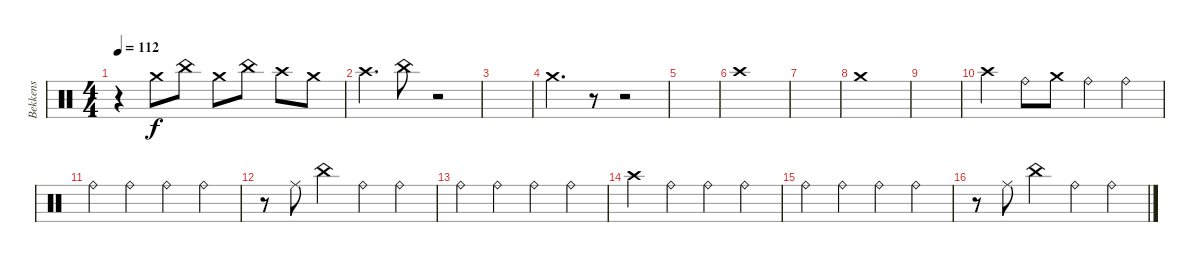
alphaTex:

\track ("Bekkens" "Bekkens") {instrument percussion}
\staff {score}
\articulation defaults
\ts (4 4)
\tempo 112
\clef neutral
\ks c
r.4{dy f} "Crash medium (hit)".8 "China (hit)".8 "Crash medium (hit)".8 "China (hit)".8 "Crash high (hit)".8 "Crash medium (hit)".8 |
"Crash high (hit)".4{d} "China (hit)".8 r.2 |
|
"Crash medium (hit)".4{d} r.8 r.2 |
|
"Crash high (hit)".1 |
|
"Crash medium (hit)".1 |
|
"Crash high (hit)".4 "Ride (bell)".8 "Crash medium (hit)".8 "Ride (bell)"{x}.4 "Ride (bell)"{x}.4 |
"Ride (bell)"{x}.4 "Ride (bell)"{x}.4 "Ride (bell)"{x}.4 "Ride (bell)"{x}.4 |
r.8 "Ride (middle)".8 "China (hit)".4 "Ride (bell)"{x}.4 "Ride (bell)"{x}.4 |
"Ride (bell)"{x}.4 "Ride (bell)"{x}.4 "Ride (bell)"{x}.4 "Ride (bell)"{x}.4 |
"Crash high (hit)".4 "Ride (bell)"{x}.4 "Ride (bell)"{x}.4 "Ride (bell)"{x}.4 |
"Ride (bell)"{x}.4 "Ride (bell)"{x}.4 "Ride (bell)"{x}.4 "Ride (bell)"{x}.4 |
r.8 "Ride (middle)".8 "China (hit)".4 "Ride (bell)"{x}.4 "Ride (bell)"{x}.4
